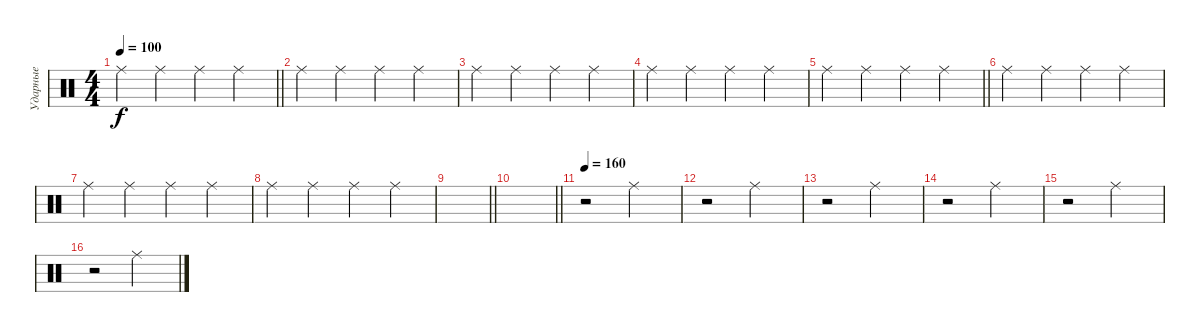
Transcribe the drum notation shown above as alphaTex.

\track ("Ударные" "Ударные") {instrument percussion}
\staff {score}
\articulation defaults
\ts (4 4)
\tempo 100
\clef neutral
\barLineRight lightlight
\ks c "Ride (middle)".4{dy f} "Ride (middle)".4 "Ride (middle)".4 "Ride (middle)".4
|
"Ride (middle)".4 "Ride (middle)".4 "Ride (middle)".4 "Ride (middle)".4 |
"Ride (middle)".4 "Ride (middle)".4 "Ride (middle)".4 "Ride (middle)".4 |
"Ride (middle)".4 "Ride (middle)".4 "Ride (middle)".4 "Ride (middle)".4 |
\barLineRight lightlight "Ride (middle)".4 "Ride (middle)".4 "Ride (middle)".4 "Ride (middle)".4
|
"Ride (middle)".4 "Ride (middle)".4 "Ride (middle)".4 "Ride (middle)".4 |
"Ride (middle)".4 "Ride (middle)".4 "Ride (middle)".4 "Ride (middle)".4 |
"Ride (middle)".4 "Ride (middle)".4 "Ride (middle)".4 "Ride (middle)".4 |
\barLineRight lightlight
|
\barLineRight lightlight
|
\tempo 160
r.2 "Ride (middle)".2 |
r.2 "Ride (middle)".2 |
r.2 "Ride (middle)".2 |
r.2 "Ride (middle)".2 |
r.2 "Ride (middle)".2 |
r.2 "Ride (middle)".2
